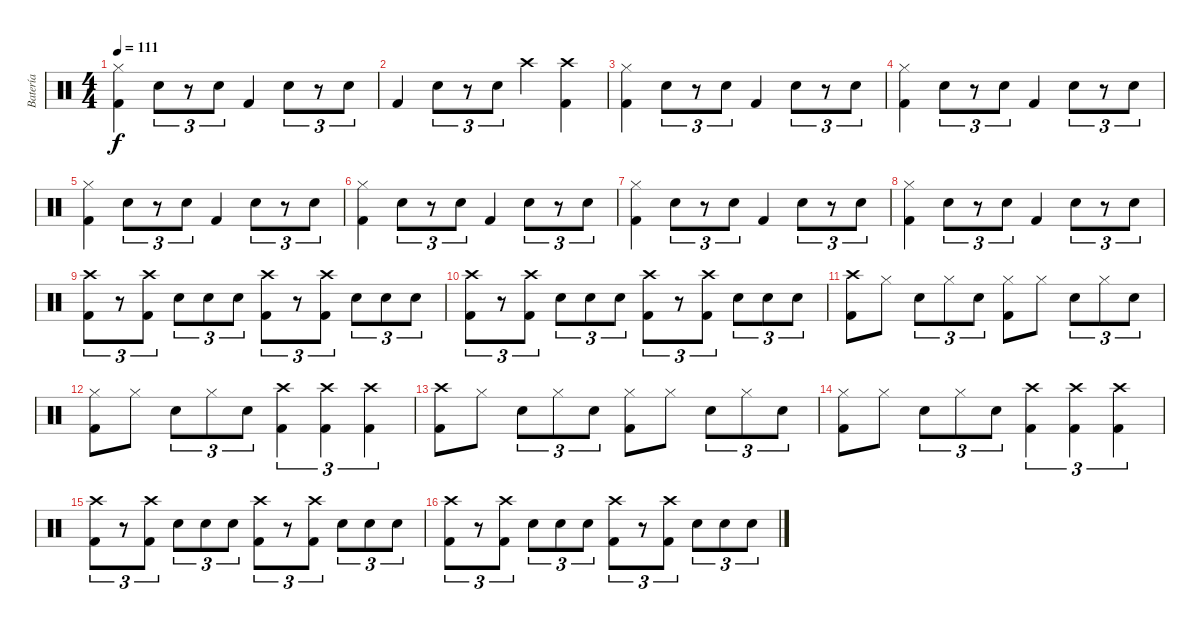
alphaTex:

\track ("Batería" "Batería") {instrument percussion}
\staff {score}
\articulation defaults
\ts (4 4)
\tempo 111
\clef neutral
\ks c
("Hi-Hat (closed)" "Kick (hit) 2").4{dy f} "Snare (hit) 2".8{tu (3 2)} r.8{tu (3 2)} "Snare (hit) 2".8{tu (3 2)} "Kick (hit) 2".4 "Snare (hit) 2".8{tu (3 2)} r.8{tu (3 2)} "Snare (hit) 2".8{tu (3 2)} |
"Kick (hit) 2".4 "Snare (hit) 2".8{tu (3 2)} r.8{tu (3 2)} "Snare (hit) 2".8{tu (3 2)} "Crash high (hit)".4 ("Crash high (hit)" "Kick (hit) 2").4 |
("Hi-Hat (closed)" "Kick (hit) 2").4 "Snare (hit) 2".8{tu (3 2)} r.8{tu (3 2)} "Snare (hit) 2".8{tu (3 2)} "Kick (hit) 2".4 "Snare (hit) 2".8{tu (3 2)} r.8{tu (3 2)} "Snare (hit) 2".8{tu (3 2)} |
("Hi-Hat (closed)" "Kick (hit) 2").4 "Snare (hit) 2".8{tu (3 2)} r.8{tu (3 2)} "Snare (hit) 2".8{tu (3 2)} "Kick (hit) 2".4 "Snare (hit) 2".8{tu (3 2)} r.8{tu (3 2)} "Snare (hit) 2".8{tu (3 2)} |
("Hi-Hat (closed)" "Kick (hit) 2").4 "Snare (hit) 2".8{tu (3 2)} r.8{tu (3 2)} "Snare (hit) 2".8{tu (3 2)} "Kick (hit) 2".4 "Snare (hit) 2".8{tu (3 2)} r.8{tu (3 2)} "Snare (hit) 2".8{tu (3 2)} |
("Hi-Hat (closed)" "Kick (hit) 2").4 "Snare (hit) 2".8{tu (3 2)} r.8{tu (3 2)} "Snare (hit) 2".8{tu (3 2)} "Kick (hit) 2".4 "Snare (hit) 2".8{tu (3 2)} r.8{tu (3 2)} "Snare (hit) 2".8{tu (3 2)} |
("Hi-Hat (closed)" "Kick (hit) 2").4 "Snare (hit) 2".8{tu (3 2)} r.8{tu (3 2)} "Snare (hit) 2".8{tu (3 2)} "Kick (hit) 2".4 "Snare (hit) 2".8{tu (3 2)} r.8{tu (3 2)} "Snare (hit) 2".8{tu (3 2)} |
("Hi-Hat (closed)" "Kick (hit) 2").4 "Snare (hit) 2".8{tu (3 2)} r.8{tu (3 2)} "Snare (hit) 2".8{tu (3 2)} "Kick (hit) 2".4 "Snare (hit) 2".8{tu (3 2)} r.8{tu (3 2)} "Snare (hit) 2".8{tu (3 2)} |
("Crash high (hit)" "Kick (hit) 2").8{tu (3 2)} r.8{tu (3 2)} ("Crash high (hit)" "Kick (hit) 2").8{tu (3 2)} "Snare (hit) 2".8{tu (3 2)} "Snare (hit) 2".8{tu (3 2)} "Snare (hit) 2".8{tu (3 2)} ("Crash high (hit)" "Kick (hit) 2").8{tu (3 2)} r.8{tu (3 2)} ("Crash high (hit)" "Kick (hit) 2").8{tu (3 2)} "Snare (hit) 2".8{tu (3 2)} "Snare (hit) 2".8{tu (3 2)} "Snare (hit) 2".8{tu (3 2)} |
("Crash high (hit)" "Kick (hit) 2").8{tu (3 2)} r.8{tu (3 2)} ("Crash high (hit)" "Kick (hit) 2").8{tu (3 2)} "Snare (hit) 2".8{tu (3 2)} "Snare (hit) 2".8{tu (3 2)} "Snare (hit) 2".8{tu (3 2)} ("Crash high (hit)" "Kick (hit) 2").8{tu (3 2)} r.8{tu (3 2)} ("Crash high (hit)" "Kick (hit) 2").8{tu (3 2)} "Snare (hit) 2".8{tu (3 2)} "Snare (hit) 2".8{tu (3 2)} "Snare (hit) 2".8{tu (3 2)} |
("Crash high (hit)" "Kick (hit) 2").8 "Hi-Hat (closed)".8 "Snare (hit) 2".8{tu (3 2)} "Hi-Hat (closed)".8{tu (3 2)} "Snare (hit) 2".8{tu (3 2)} ("Hi-Hat (closed)" "Kick (hit) 2").8 "Hi-Hat (closed)".8 "Snare (hit) 2".8{tu (3 2)} "Hi-Hat (closed)".8{tu (3 2)} "Snare (hit) 2".8{tu (3 2)} |
("Hi-Hat (closed)" "Kick (hit) 2").8 "Hi-Hat (closed)".8 "Snare (hit) 2".8{tu (3 2)} "Hi-Hat (closed)".8{tu (3 2)} "Snare (hit) 2".8{tu (3 2)} ("Crash high (hit)" "Kick (hit) 2").4{tu (3 2)} ("Crash high (hit)" "Kick (hit) 2").4{tu (3 2)} ("Crash high (hit)" "Kick (hit) 2").4{tu (3 2)} |
("Crash high (hit)" "Kick (hit) 2").8 "Hi-Hat (closed)".8 "Snare (hit) 2".8{tu (3 2)} "Hi-Hat (closed)".8{tu (3 2)} "Snare (hit) 2".8{tu (3 2)} ("Hi-Hat (closed)" "Kick (hit) 2").8 "Hi-Hat (closed)".8 "Snare (hit) 2".8{tu (3 2)} "Hi-Hat (closed)".8{tu (3 2)} "Snare (hit) 2".8{tu (3 2)} |
("Hi-Hat (closed)" "Kick (hit) 2").8 "Hi-Hat (closed)".8 "Snare (hit) 2".8{tu (3 2)} "Hi-Hat (closed)".8{tu (3 2)} "Snare (hit) 2".8{tu (3 2)} ("Crash high (hit)" "Kick (hit) 2").4{tu (3 2)} ("Crash high (hit)" "Kick (hit) 2").4{tu (3 2)} ("Crash high (hit)" "Kick (hit) 2").4{tu (3 2)} |
("Crash high (hit)" "Kick (hit) 2").8{tu (3 2)} r.8{tu (3 2)} ("Crash high (hit)" "Kick (hit) 2").8{tu (3 2)} "Snare (hit) 2".8{tu (3 2)} "Snare (hit) 2".8{tu (3 2)} "Snare (hit) 2".8{tu (3 2)} ("Crash high (hit)" "Kick (hit) 2").8{tu (3 2)} r.8{tu (3 2)} ("Crash high (hit)" "Kick (hit) 2").8{tu (3 2)} "Snare (hit) 2".8{tu (3 2)} "Snare (hit) 2".8{tu (3 2)} "Snare (hit) 2".8{tu (3 2)} |
("Crash high (hit)" "Kick (hit) 2").8{tu (3 2)} r.8{tu (3 2)} ("Crash high (hit)" "Kick (hit) 2").8{tu (3 2)} "Snare (hit) 2".8{tu (3 2)} "Snare (hit) 2".8{tu (3 2)} "Snare (hit) 2".8{tu (3 2)} ("Crash high (hit)" "Kick (hit) 2").8{tu (3 2)} r.8{tu (3 2)} ("Crash high (hit)" "Kick (hit) 2").8{tu (3 2)} "Snare (hit) 2".8{tu (3 2)} "Snare (hit) 2".8{tu (3 2)} "Snare (hit) 2".8{tu (3 2)}
